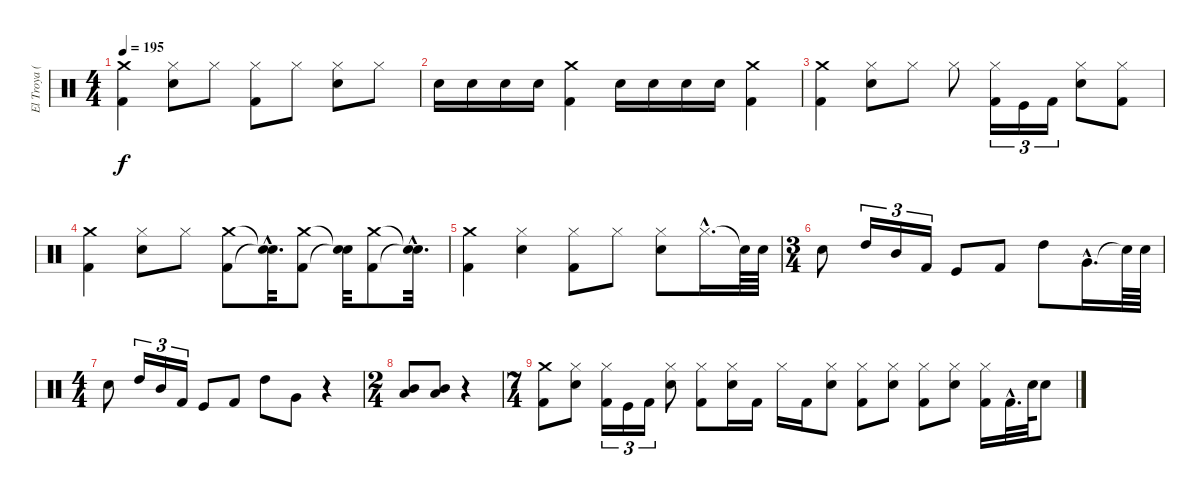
\track ("El Troya (premio)" "El Troya (") {instrument percussion}
\staff {score}
\articulation defaults
\ts (4 4)
\tempo 195
\clef neutral
\ks c
("Kick (hit) 2" "Crash medium (hit)").4{dy f} ("Hi-Hat (closed)" "Snare (hit) 2").8 "Hi-Hat (closed)".8 ("Hi-Hat (closed)" "Kick (hit) 2").8 "Hi-Hat (closed)".8 ("Snare (hit) 2" "Hi-Hat (closed)").8 "Hi-Hat (closed)".8 |
"Snare (hit) 2".16 "Snare (hit) 2".16 "Snare (hit) 2".16 "Snare (hit) 2".16 ("Kick (hit) 2" "Crash medium (hit)").4 "Snare (hit) 2".16 "Snare (hit) 2".16 "Snare (hit) 2".16 "Snare (hit) 2".16 ("Kick (hit) 2" "Crash medium (hit)").4 |
("Kick (hit) 2" "Crash medium (hit)").4 ("Snare (hit) 2" "Hi-Hat (closed)").8 "Hi-Hat (closed)".8 "Hi-Hat (closed)".8 ("Kick (hit) 2" "Hi-Hat (closed)").16{tu (3 2)} "Kick (hit)".16{tu (3 2)} "Kick (hit) 2".16{tu (3 2)} ("Snare (hit) 2" "Hi-Hat (closed)").8 ("Kick (hit) 2" "Hi-Hat (closed)").8 |
("Kick (hit) 2" "Crash medium (hit)").4 ("Hi-Hat (closed)" "Snare (hit) 2").8 "Hi-Hat (closed)".8 ("Kick (hit) 2" "Crash medium (hit)").8 ("Snare (hit)"{hac t} "Snare (hit)"{hac t}).32{d} ("Kick (hit) 2" "Crash medium (hit)").8 ("Snare (hit)"{t} "Snare (hit)"{t}).32 ("Kick (hit) 2" "Crash medium (hit)").8 ("Snare (hit)"{hac t} "Snare (hit)"{hac t}).32{d} |
("Kick (hit) 2" "Crash medium (hit)").4 ("Hi-Hat (closed)" "Snare (hit) 2").4 ("Hi-Hat (closed)" "Kick (hit) 2").8 "Hi-Hat (closed)".8 ("Snare (hit) 2" "Hi-Hat (closed)").8 "Hi-Hat (closed)"{hac}.16{d} "Snare (hit)"{t}.64 "Snare (hit) 2".64 |
\ts (3 4)
"Snare (hit) 2".8 "High Tom (hit)".16{tu (3 2)} "Mid Tom (hit)".16{tu (3 2)} "Kick (hit) 2".16{tu (3 2)} "Kick (hit)".8 "Kick (hit) 2".8 "High Tom (hit)".8 "Very Low Tom (hit)"{hac}.16{d} "Snare (hit)"{t}.64 "Snare (hit) 2".64 |
\ts (4 4)
"Snare (hit) 2".8 "High Tom (hit)".16{tu (3 2)} "Mid Tom (hit)".16{tu (3 2)} "Kick (hit) 2".16{tu (3 2)} "Kick (hit)".8 "Kick (hit) 2".8 "High Tom (hit)".8 "Very Low Tom (hit)".8 r.4 |
\ts (2 4)
("Mid Tom (hit)" "Low Tom (hit)").8 ("Mid Tom (hit)" "Low Tom (hit)").8 r.4 |
\ts (7 4)
("Crash medium (hit)" "Kick (hit) 2").8 ("Snare (hit) 2" "Hi-Hat (closed)").8 ("Hi-Hat (closed)" "Kick (hit) 2").16{tu (3 2)} "Kick (hit)".16{tu (3 2)} "Kick (hit) 2".16{tu (3 2)} ("Snare (hit) 2" "Hi-Hat (closed)").8 ("Hi-Hat (closed)" "Kick (hit) 2").8 ("Snare (hit) 2" "Hi-Hat (closed)").16 "Kick (hit) 2".16 "Hi-Hat (closed)".16 "Kick (hit) 2".16 ("Snare (hit) 2" "Hi-Hat (closed)").8 ("Hi-Hat (closed)" "Kick (hit) 2").8 ("Snare (hit) 2" "Hi-Hat (closed)").8 ("Hi-Hat (closed)" "Kick (hit) 2").8 ("Snare (hit) 2" "Hi-Hat (closed)").8 ("Hi-Hat (closed)" "Kick (hit) 2").16 "Kick (hit) 2"{hac}.32{d} "Snare (hit) 2".64 "Snare (hit) 2".8
